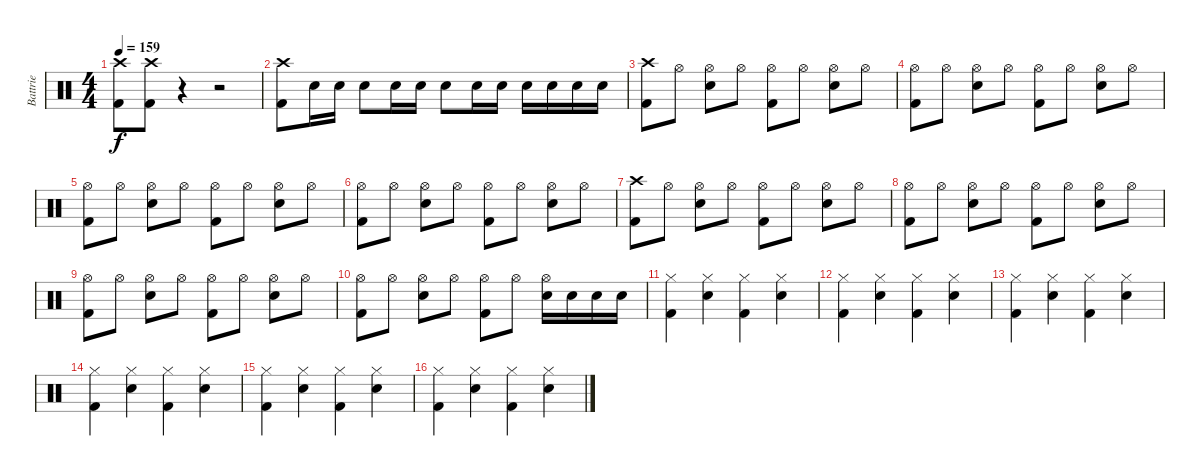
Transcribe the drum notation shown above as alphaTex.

\track ("Battrie" "Battrie") {instrument percussion}
\staff {score}
\articulation defaults
\ts (4 4)
\tempo 159
\clef neutral
\ks c
("Crash high (hit)" "Kick (hit) 2").8{dy f} ("Crash high (hit)" "Kick (hit) 2").8 r.4 r.2 |
("Crash high (hit)" "Kick (hit) 2").8 "Snare (hit) 2".16 "Snare (hit) 2".16 "Snare (hit) 2".8 "Snare (hit) 2".16 "Snare (hit) 2".16 "Snare (hit) 2".8 "Snare (hit) 2".16 "Snare (hit) 2".16 "Snare (hit) 2".16 "Snare (hit) 2".16 "Snare (hit) 2".16 "Snare (hit) 2".16 |
("Crash high (hit)" "Kick (hit) 2").8 "Hi-Hat (open)".8 ("Hi-Hat (open)" "Snare (hit) 2").8 "Hi-Hat (open)".8 ("Hi-Hat (open)" "Kick (hit) 2").8 "Hi-Hat (open)".8 ("Hi-Hat (open)" "Snare (hit) 2").8 "Hi-Hat (open)".8 |
("Hi-Hat (open)" "Kick (hit) 2").8 "Hi-Hat (open)".8 ("Hi-Hat (open)" "Snare (hit) 2").8 "Hi-Hat (open)".8 ("Hi-Hat (open)" "Kick (hit) 2").8 "Hi-Hat (open)".8 ("Hi-Hat (open)" "Snare (hit) 2").8 "Hi-Hat (open)".8 |
("Hi-Hat (open)" "Kick (hit) 2").8 "Hi-Hat (open)".8 ("Hi-Hat (open)" "Snare (hit) 2").8 "Hi-Hat (open)".8 ("Hi-Hat (open)" "Kick (hit) 2").8 "Hi-Hat (open)".8 ("Hi-Hat (open)" "Snare (hit) 2").8 "Hi-Hat (open)".8 |
("Hi-Hat (open)" "Kick (hit) 2").8 "Hi-Hat (open)".8 ("Hi-Hat (open)" "Snare (hit) 2").8 "Hi-Hat (open)".8 ("Hi-Hat (open)" "Kick (hit) 2").8 "Hi-Hat (open)".8 ("Hi-Hat (open)" "Snare (hit) 2").8 "Hi-Hat (open)".8 |
("Crash high (hit)" "Kick (hit) 2").8 "Hi-Hat (open)".8 ("Hi-Hat (open)" "Snare (hit) 2").8 "Hi-Hat (open)".8 ("Hi-Hat (open)" "Kick (hit) 2").8 "Hi-Hat (open)".8 ("Hi-Hat (open)" "Snare (hit) 2").8 "Hi-Hat (open)".8 |
("Hi-Hat (open)" "Kick (hit) 2").8 "Hi-Hat (open)".8 ("Hi-Hat (open)" "Snare (hit) 2").8 "Hi-Hat (open)".8 ("Hi-Hat (open)" "Kick (hit) 2").8 "Hi-Hat (open)".8 ("Hi-Hat (open)" "Snare (hit) 2").8 "Hi-Hat (open)".8 |
("Hi-Hat (open)" "Kick (hit) 2").8 "Hi-Hat (open)".8 ("Hi-Hat (open)" "Snare (hit) 2").8 "Hi-Hat (open)".8 ("Hi-Hat (open)" "Kick (hit) 2").8 "Hi-Hat (open)".8 ("Hi-Hat (open)" "Snare (hit) 2").8 "Hi-Hat (open)".8 |
("Hi-Hat (open)" "Kick (hit) 2").8 "Hi-Hat (open)".8 ("Hi-Hat (open)" "Snare (hit) 2").8 "Hi-Hat (open)".8 ("Hi-Hat (open)" "Kick (hit) 2").8 "Hi-Hat (open)".8 ("Hi-Hat (open)" "Snare (hit) 2").16 "Snare (hit) 2".16 "Snare (hit) 2".16 "Snare (hit) 2".16 |
("Hi-Hat (closed)" "Kick (hit) 2").4 ("Hi-Hat (closed)" "Snare (hit) 2").4 ("Hi-Hat (closed)" "Kick (hit) 2").4 ("Hi-Hat (closed)" "Snare (hit) 2").4 |
("Hi-Hat (closed)" "Kick (hit) 2").4 ("Hi-Hat (closed)" "Snare (hit) 2").4 ("Hi-Hat (closed)" "Kick (hit) 2").4 ("Hi-Hat (closed)" "Snare (hit) 2").4 |
("Hi-Hat (closed)" "Kick (hit) 2").4 ("Hi-Hat (closed)" "Snare (hit) 2").4 ("Hi-Hat (closed)" "Kick (hit) 2").4 ("Hi-Hat (closed)" "Snare (hit) 2").4 |
("Hi-Hat (closed)" "Kick (hit) 2").4 ("Hi-Hat (closed)" "Snare (hit) 2").4 ("Hi-Hat (closed)" "Kick (hit) 2").4 ("Hi-Hat (closed)" "Snare (hit) 2").4 |
("Hi-Hat (closed)" "Kick (hit) 2").4 ("Hi-Hat (closed)" "Snare (hit) 2").4 ("Hi-Hat (closed)" "Kick (hit) 2").4 ("Hi-Hat (closed)" "Snare (hit) 2").4 |
("Hi-Hat (closed)" "Kick (hit) 2").4 ("Hi-Hat (closed)" "Snare (hit) 2").4 ("Hi-Hat (closed)" "Kick (hit) 2").4 ("Hi-Hat (closed)" "Snare (hit) 2").4
